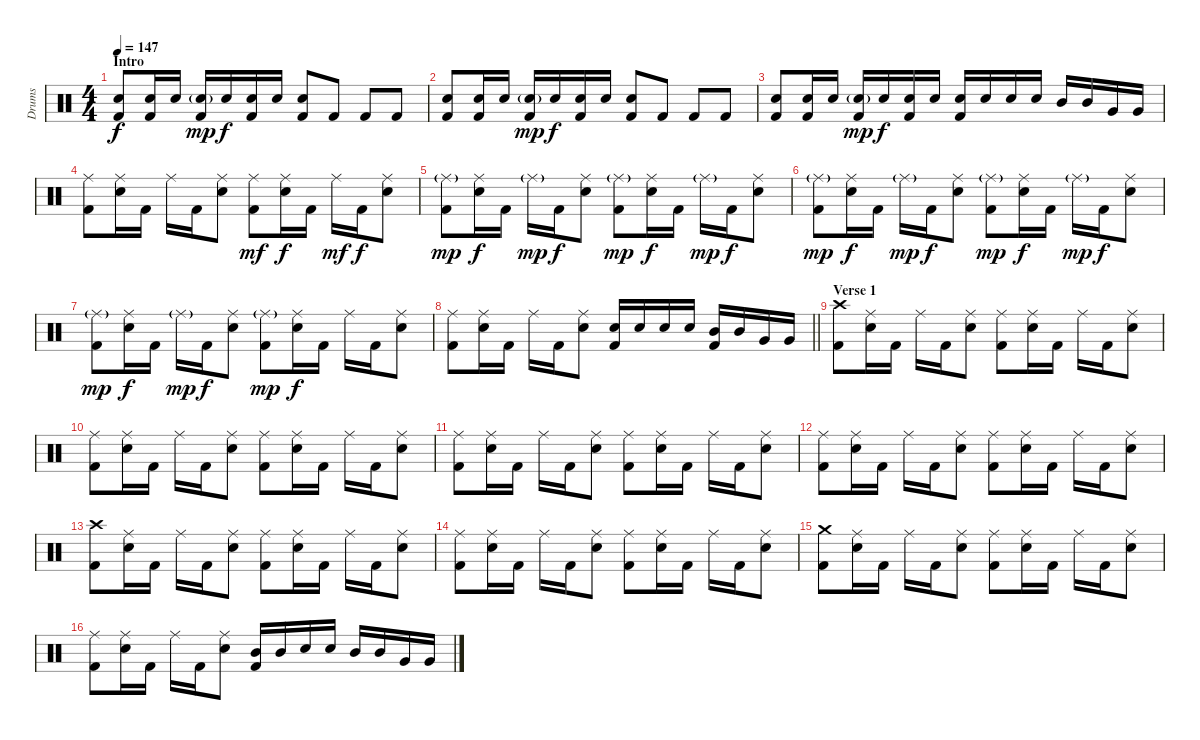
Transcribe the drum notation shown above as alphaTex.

\track ("Drums" "Drums") {instrument percussion}
\staff {score}
\articulation defaults
\ts (4 4)
\section ("" "Intro")
\tempo 147
\clef neutral
\ks aminor
("Electric Snare (hit)" "Kick (hit) 2").8{dy f} ("Electric Snare (hit)" "Kick (hit) 2").16 "Electric Snare (hit)".16 ("Electric Snare (hit)"{g} "Kick (hit) 2").16{dy mp} "Electric Snare (hit)".16{dy f} ("Electric Snare (hit)" "Kick (hit) 2").16 "Electric Snare (hit)".16 ("Electric Snare (hit)" "Kick (hit) 2").8 "Kick (hit) 2".8 "Kick (hit) 2".8 "Kick (hit) 2".8 |
("Electric Snare (hit)" "Kick (hit) 2").8 ("Electric Snare (hit)" "Kick (hit) 2").16 "Electric Snare (hit)".16 ("Electric Snare (hit)"{g} "Kick (hit) 2").16{dy mp} "Electric Snare (hit)".16{dy f} ("Electric Snare (hit)" "Kick (hit) 2").16 "Electric Snare (hit)".16 ("Electric Snare (hit)" "Kick (hit) 2").8 "Kick (hit) 2".8 "Kick (hit) 2".8 "Kick (hit) 2".8 |
("Electric Snare (hit)" "Kick (hit) 2").8 ("Electric Snare (hit)" "Kick (hit) 2").16 "Electric Snare (hit)".16 ("Electric Snare (hit)"{g} "Kick (hit) 2").16{dy mp} "Electric Snare (hit)".16{dy f} ("Electric Snare (hit)" "Kick (hit) 2").16 "Electric Snare (hit)".16 ("Electric Snare (hit)" "Kick (hit) 2").16 "Electric Snare (hit)".16 "Electric Snare (hit)".16 "Electric Snare (hit)".16 "Mid Tom (hit)".16 "Mid Tom (hit)".16 "Very Low Tom (hit)".16 "Very Low Tom (hit)".16 |
("Ride (middle)" "Kick (hit) 2").8 ("Ride (middle)" "Electric Snare (hit)").16 "Kick (hit) 2".16 "Ride (middle)".16 "Kick (hit) 2".16 ("Ride (middle)" "Electric Snare (hit)").8 ("Ride (middle)" "Kick (hit) 2").8{dy mf} ("Ride (middle)" "Electric Snare (hit)").16{dy f} "Kick (hit) 2".16 "Ride (middle)".16{dy mf} "Kick (hit) 2".16{dy f} ("Ride (middle)" "Electric Snare (hit)").8 |
("Ride (middle)"{g} "Kick (hit) 2").8{dy mp} ("Ride (middle)" "Electric Snare (hit)").16{dy f} "Kick (hit) 2".16 "Ride (middle)"{g}.16{dy mp} "Kick (hit) 2".16{dy f} ("Ride (middle)" "Electric Snare (hit)").8 ("Ride (middle)"{g} "Kick (hit) 2").8{dy mp} ("Ride (middle)" "Electric Snare (hit)").16{dy f} "Kick (hit) 2".16 "Ride (middle)"{g}.16{dy mp} "Kick (hit) 2".16{dy f} ("Ride (middle)" "Electric Snare (hit)").8 |
("Ride (middle)"{g} "Kick (hit) 2").8{dy mp} ("Ride (middle)" "Electric Snare (hit)").16{dy f} "Kick (hit) 2".16 "Ride (middle)"{g}.16{dy mp} "Kick (hit) 2".16{dy f} ("Ride (middle)" "Electric Snare (hit)").8 ("Ride (middle)"{g} "Kick (hit) 2").8{dy mp} ("Ride (middle)" "Electric Snare (hit)").16{dy f} "Kick (hit) 2".16 "Ride (middle)"{g}.16{dy mp} "Kick (hit) 2".16{dy f} ("Ride (middle)" "Electric Snare (hit)").8 |
("Ride (middle)"{g} "Kick (hit) 2").8{dy mp} ("Ride (middle)" "Electric Snare (hit)").16{dy f} "Kick (hit) 2".16 "Ride (middle)"{g}.16{dy mp} "Kick (hit) 2".16{dy f} ("Ride (middle)" "Electric Snare (hit)").8 ("Ride (middle)"{g} "Kick (hit) 2").8{dy mp} ("Ride (middle)" "Electric Snare (hit)").16{dy f} "Kick (hit) 2".16 "Ride (middle)".16 "Kick (hit) 2".16 ("Ride (middle)" "Electric Snare (hit)").8 |
\barLineRight lightlight
("Ride (middle)" "Kick (hit) 2").8 ("Ride (middle)" "Electric Snare (hit)").16 "Kick (hit) 2".16 "Ride (middle)".16 "Kick (hit) 2".16 ("Ride (middle)" "Electric Snare (hit)").8 ("Electric Snare (hit)" "Kick (hit) 2").16 "Electric Snare (hit)".16 "Electric Snare (hit)".16 "Electric Snare (hit)".16 ("Mid Tom (hit)" "Kick (hit) 2").16 "Mid Tom (hit)".16 "Very Low Tom (hit)".16 "Very Low Tom (hit)".16 |
\section ("" "Verse 1")
("Crash high (hit)" "Kick (hit) 2").8 ("Ride (middle)" "Electric Snare (hit)").16 "Kick (hit) 2".16 "Ride (middle)".16 "Kick (hit) 2".16 ("Ride (middle)" "Electric Snare (hit)").8 ("Ride (middle)" "Kick (hit) 2").8 ("Ride (middle)" "Electric Snare (hit)").16 "Kick (hit) 2".16 "Ride (middle)".16 "Kick (hit) 2".16 ("Ride (middle)" "Electric Snare (hit)").8 |
("Ride (middle)" "Kick (hit) 2").8 ("Ride (middle)" "Electric Snare (hit)").16 "Kick (hit) 2".16 "Ride (middle)".16 "Kick (hit) 2".16 ("Ride (middle)" "Electric Snare (hit)").8 ("Ride (middle)" "Kick (hit) 2").8 ("Ride (middle)" "Electric Snare (hit)").16 "Kick (hit) 2".16 "Ride (middle)".16 "Kick (hit) 2".16 ("Ride (middle)" "Electric Snare (hit)").8 |
("Ride (middle)" "Kick (hit) 2").8 ("Ride (middle)" "Electric Snare (hit)").16 "Kick (hit) 2".16 "Ride (middle)".16 "Kick (hit) 2".16 ("Ride (middle)" "Electric Snare (hit)").8 ("Ride (middle)" "Kick (hit) 2").8 ("Ride (middle)" "Electric Snare (hit)").16 "Kick (hit) 2".16 "Ride (middle)".16 "Kick (hit) 2".16 ("Ride (middle)" "Electric Snare (hit)").8 |
("Ride (middle)" "Kick (hit) 2").8 ("Ride (middle)" "Electric Snare (hit)").16 "Kick (hit) 2".16 "Ride (middle)".16 "Kick (hit) 2".16 ("Ride (middle)" "Electric Snare (hit)").8 ("Ride (middle)" "Kick (hit) 2").8 ("Ride (middle)" "Electric Snare (hit)").16 "Kick (hit) 2".16 "Ride (middle)".16 "Kick (hit) 2".16 ("Ride (middle)" "Electric Snare (hit)").8 |
("Crash high (hit)" "Kick (hit) 2").8 ("Ride (middle)" "Electric Snare (hit)").16 "Kick (hit) 2".16 "Ride (middle)".16 "Kick (hit) 2".16 ("Ride (middle)" "Electric Snare (hit)").8 ("Ride (middle)" "Kick (hit) 2").8 ("Ride (middle)" "Electric Snare (hit)").16 "Kick (hit) 2".16 "Ride (middle)".16 "Kick (hit) 2".16 ("Ride (middle)" "Electric Snare (hit)").8 |
("Ride (middle)" "Kick (hit) 2").8 ("Ride (middle)" "Electric Snare (hit)").16 "Kick (hit) 2".16 "Ride (middle)".16 "Kick (hit) 2".16 ("Ride (middle)" "Electric Snare (hit)").8 ("Ride (middle)" "Kick (hit) 2").8 ("Ride (middle)" "Electric Snare (hit)").16 "Kick (hit) 2".16 "Ride (middle)".16 "Kick (hit) 2".16 ("Ride (middle)" "Electric Snare (hit)").8 |
("Crash medium (hit)" "Kick (hit) 2").8 ("Ride (middle)" "Electric Snare (hit)").16 "Kick (hit) 2".16 "Ride (middle)".16 "Kick (hit) 2".16 ("Ride (middle)" "Electric Snare (hit)").8 ("Ride (middle)" "Kick (hit) 2").8 ("Ride (middle)" "Electric Snare (hit)").16 "Kick (hit) 2".16 "Ride (middle)".16 "Kick (hit) 2".16 ("Ride (middle)" "Electric Snare (hit)").8 |
("Ride (middle)" "Kick (hit) 2").8 ("Ride (middle)" "Electric Snare (hit)").16 "Kick (hit) 2".16 "Ride (middle)".16 "Kick (hit) 2".16 ("Ride (middle)" "Electric Snare (hit)").8 ("Mid Tom (hit)" "Kick (hit) 2").16 "Mid Tom (hit)".16 "Electric Snare (hit)".16 "Electric Snare (hit)".16 "Mid Tom (hit)".16 "Mid Tom (hit)".16 "Very Low Tom (hit)".16 "Very Low Tom (hit)".16
